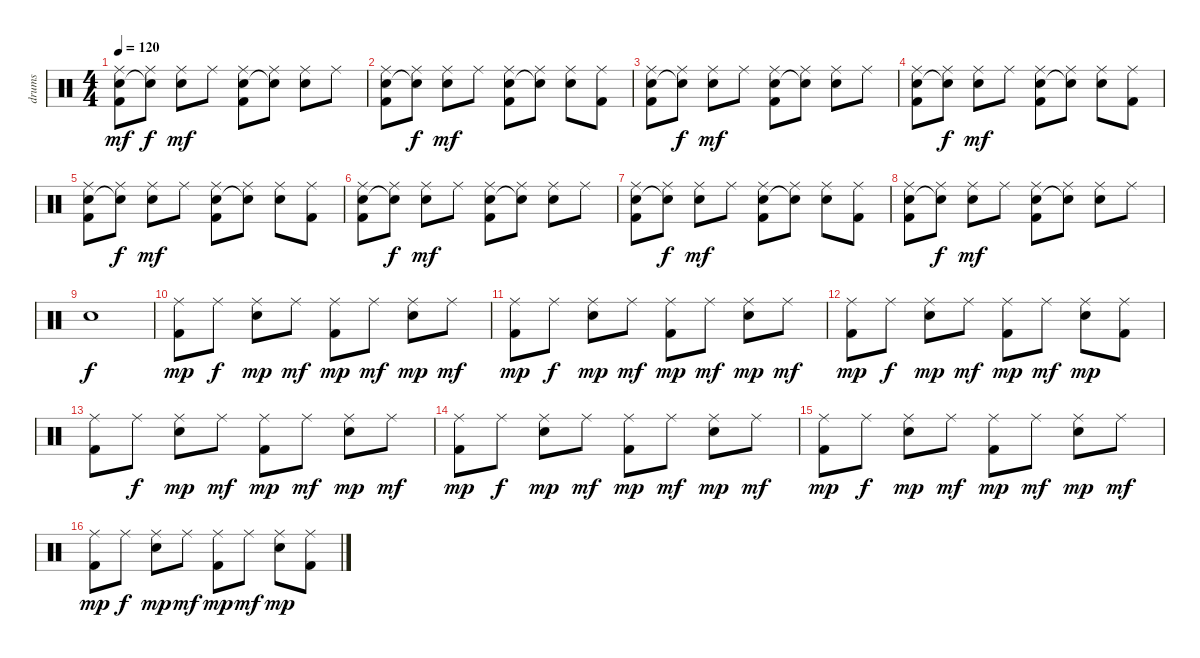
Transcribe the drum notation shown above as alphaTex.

\track ("drums" "drums") {instrument percussion}
\staff {score}
\articulation defaults
\ts (4 4)
\tempo 120
\clef neutral
\ks c
("Ride (middle)" "Hand Clap (hit)" "Kick (hit) 2").8{dy mf} ("Ride (middle)" "Snare (hit)"{t}).8{dy f} ("Ride (middle)" "Snare (hit) 2").8{dy mf} "Ride (middle)".8 ("Ride (middle)" "Hand Clap (hit)" "Kick (hit) 2").8 ("Ride (middle)" "Snare (hit)"{t}).8 ("Ride (middle)" "Snare (hit) 2").8 "Ride (middle)".8 |
("Ride (middle)" "Hand Clap (hit)" "Kick (hit) 2").8 ("Ride (middle)" "Snare (hit)"{t}).8{dy f} ("Ride (middle)" "Snare (hit) 2").8{dy mf} "Ride (middle)".8 ("Ride (middle)" "Hand Clap (hit)" "Kick (hit) 2").8 ("Ride (middle)" "Snare (hit)"{t}).8 ("Ride (middle)" "Snare (hit) 2").8 ("Ride (middle)" "Kick (hit) 2").8 |
("Ride (middle)" "Hand Clap (hit)" "Kick (hit) 2").8 ("Ride (middle)" "Snare (hit)"{t}).8{dy f} ("Ride (middle)" "Snare (hit) 2").8{dy mf} "Ride (middle)".8 ("Ride (middle)" "Hand Clap (hit)" "Kick (hit) 2").8 ("Ride (middle)" "Snare (hit)"{t}).8 ("Ride (middle)" "Snare (hit) 2").8 "Ride (middle)".8 |
("Ride (middle)" "Hand Clap (hit)" "Kick (hit) 2").8 ("Ride (middle)" "Snare (hit)"{t}).8{dy f} ("Ride (middle)" "Snare (hit) 2").8{dy mf} "Ride (middle)".8 ("Ride (middle)" "Hand Clap (hit)" "Kick (hit) 2").8 ("Ride (middle)" "Snare (hit)"{t}).8 ("Ride (middle)" "Snare (hit) 2").8 ("Ride (middle)" "Kick (hit) 2").8 |
("Ride (middle)" "Hand Clap (hit)" "Kick (hit) 2").8 ("Ride (middle)" "Snare (hit)"{t}).8{dy f} ("Ride (middle)" "Snare (hit) 2").8{dy mf} "Ride (middle)".8 ("Ride (middle)" "Hand Clap (hit)" "Kick (hit) 2").8 ("Ride (middle)" "Snare (hit)"{t}).8 ("Ride (middle)" "Snare (hit) 2").8 ("Ride (middle)" "Kick (hit) 2").8 |
("Ride (middle)" "Hand Clap (hit)" "Kick (hit) 2").8 ("Ride (middle)" "Snare (hit)"{t}).8{dy f} ("Ride (middle)" "Snare (hit) 2").8{dy mf} "Ride (middle)".8 ("Ride (middle)" "Hand Clap (hit)" "Kick (hit) 2").8 ("Ride (middle)" "Snare (hit)"{t}).8 ("Ride (middle)" "Snare (hit) 2").8 "Ride (middle)".8 |
("Ride (middle)" "Hand Clap (hit)" "Kick (hit) 2").8 ("Ride (middle)" "Snare (hit)"{t}).8{dy f} ("Ride (middle)" "Snare (hit) 2").8{dy mf} "Ride (middle)".8 ("Ride (middle)" "Hand Clap (hit)" "Kick (hit) 2").8 ("Ride (middle)" "Snare (hit)"{t}).8 ("Ride (middle)" "Snare (hit) 2").8 ("Ride (middle)" "Kick (hit) 2").8 |
("Ride (middle)" "Hand Clap (hit)" "Kick (hit) 2").8 ("Ride (middle)" "Snare (hit)"{t}).8{dy f} ("Ride (middle)" "Snare (hit) 2").8{dy mf} "Ride (middle)".8 ("Ride (middle)" "Hand Clap (hit)" "Kick (hit) 2").8 ("Ride (middle)" "Snare (hit)"{t}).8 ("Ride (middle)" "Snare (hit) 2").8 "Ride (middle)".8 |
"Hand Clap (hit)".1{dy f} |
("Ride (middle)" "Kick (hit) 2").8{dy mp} "Ride (middle)".8{dy f} ("Ride (middle)" "Snare (hit) 2").8{dy mp} "Ride (middle)".8{dy mf} ("Ride (middle)" "Kick (hit) 2").8{dy mp} "Ride (middle)".8{dy mf} ("Ride (middle)" "Snare (hit) 2").8{dy mp} "Ride (middle)".8{dy mf} |
("Ride (middle)" "Kick (hit) 2").8{dy mp} "Ride (middle)".8{dy f} ("Ride (middle)" "Snare (hit) 2").8{dy mp} "Ride (middle)".8{dy mf} ("Ride (middle)" "Kick (hit) 2").8{dy mp} "Ride (middle)".8{dy mf} ("Ride (middle)" "Snare (hit) 2").8{dy mp} "Ride (middle)".8{dy mf} |
("Ride (middle)" "Kick (hit) 2").8{dy mp} "Ride (middle)".8{dy f} ("Ride (middle)" "Snare (hit) 2").8{dy mp} "Ride (middle)".8{dy mf} ("Ride (middle)" "Kick (hit) 2").8{dy mp} "Ride (middle)".8{dy mf} ("Ride (middle)" "Snare (hit) 2").8{dy mp} ("Ride (middle)" "Kick (hit) 2").8 |
("Ride (middle)" "Kick (hit) 2").8 "Ride (middle)".8{dy f} ("Ride (middle)" "Snare (hit) 2").8{dy mp} "Ride (middle)".8{dy mf} ("Ride (middle)" "Kick (hit) 2").8{dy mp} "Ride (middle)".8{dy mf} ("Ride (middle)" "Snare (hit) 2").8{dy mp} "Ride (middle)".8{dy mf} |
("Ride (middle)" "Kick (hit) 2").8{dy mp} "Ride (middle)".8{dy f} ("Ride (middle)" "Snare (hit) 2").8{dy mp} "Ride (middle)".8{dy mf} ("Ride (middle)" "Kick (hit) 2").8{dy mp} "Ride (middle)".8{dy mf} ("Ride (middle)" "Snare (hit) 2").8{dy mp} "Ride (middle)".8{dy mf} |
("Ride (middle)" "Kick (hit) 2").8{dy mp} "Ride (middle)".8{dy f} ("Ride (middle)" "Snare (hit) 2").8{dy mp} "Ride (middle)".8{dy mf} ("Ride (middle)" "Kick (hit) 2").8{dy mp} "Ride (middle)".8{dy mf} ("Ride (middle)" "Snare (hit) 2").8{dy mp} "Ride (middle)".8{dy mf} |
("Ride (middle)" "Kick (hit) 2").8{dy mp} "Ride (middle)".8{dy f} ("Ride (middle)" "Snare (hit) 2").8{dy mp} "Ride (middle)".8{dy mf} ("Ride (middle)" "Kick (hit) 2").8{dy mp} "Ride (middle)".8{dy mf} ("Ride (middle)" "Snare (hit) 2").8{dy mp} ("Ride (middle)" "Kick (hit) 2").8
